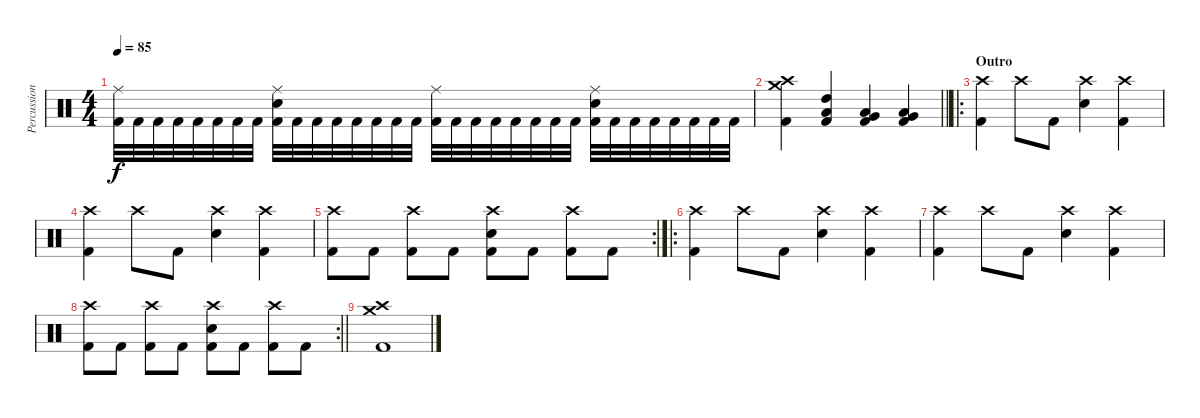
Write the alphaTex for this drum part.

\track ("Percussion" "Percussion") {instrument percussion}
\staff {score}
\articulation defaults
\ts (4 4)
\tempo 85
\clef neutral
\ks c
("Ride (middle)" "Kick (hit) 2").32{dy f} "Kick (hit) 2".32 "Kick (hit) 2".32 "Kick (hit) 2".32 "Kick (hit) 2".32 "Kick (hit) 2".32 "Kick (hit) 2".32 "Kick (hit) 2".32 ("Ride (middle)" "Electric Snare (hit)" "Kick (hit) 2").32 "Kick (hit) 2".32 "Kick (hit) 2".32 "Kick (hit) 2".32 "Kick (hit) 2".32 "Kick (hit) 2".32 "Kick (hit) 2".32 "Kick (hit) 2".32 ("Ride (middle)" "Kick (hit) 2").32 "Kick (hit) 2".32 "Kick (hit) 2".32 "Kick (hit) 2".32 "Kick (hit) 2".32 "Kick (hit) 2".32 "Kick (hit) 2".32 "Kick (hit) 2".32 ("Ride (middle)" "Electric Snare (hit)" "Kick (hit) 2").32 "Kick (hit) 2".32 "Kick (hit) 2".32 "Kick (hit) 2".32 "Kick (hit) 2".32 "Kick (hit) 2".32 "Kick (hit) 2".32 "Kick (hit) 2".32 |
\barLineRight lightlight
("Crash medium (hit)" "Crash high (hit)" "Kick (hit) 2").4 ("Low Tom (hit)" "High Tom (hit)" "Kick (hit) 2").4 ("Very Low Tom (hit)" "Low Tom (hit)" "Kick (hit) 2").4 ("Low Floor Tom (hit)" "Very Low Tom (hit)" "Kick (hit) 2").4 |
\ro
\section ("" "Outro")
("Crash high (hit)" "Kick (hit) 2").4 "Crash high (hit)".8 "Kick (hit) 2".8 ("Crash high (hit)" "Electric Snare (hit)").4 ("Crash high (hit)" "Kick (hit) 2").4 |
("Crash high (hit)" "Kick (hit) 2").4 "Crash high (hit)".8 "Kick (hit) 2".8 ("Crash high (hit)" "Electric Snare (hit)").4 ("Crash high (hit)" "Kick (hit) 2").4 |
\rc 2
("Crash high (hit)" "Kick (hit) 2").8 "Kick (hit) 2".8 ("Crash high (hit)" "Kick (hit) 2").8 "Kick (hit) 2".8 ("Crash high (hit)" "Electric Snare (hit)" "Kick (hit) 2").8 "Kick (hit) 2".8 ("Crash high (hit)" "Kick (hit) 2").8 "Kick (hit) 2".8 |
\ro
("Crash high (hit)" "Kick (hit) 2").4 "Crash high (hit)".8 "Kick (hit) 2".8 ("Crash high (hit)" "Electric Snare (hit)").4 ("Crash high (hit)" "Kick (hit) 2").4 |
("Crash high (hit)" "Kick (hit) 2").4 "Crash high (hit)".8 "Kick (hit) 2".8 ("Crash high (hit)" "Electric Snare (hit)").4 ("Crash high (hit)" "Kick (hit) 2").4 |
\rc 2
\barLineRight lightlight
("Crash high (hit)" "Kick (hit) 2").8 "Kick (hit) 2".8 ("Crash high (hit)" "Kick (hit) 2").8 "Kick (hit) 2".8 ("Crash high (hit)" "Electric Snare (hit)" "Kick (hit) 2").8 "Kick (hit) 2".8 ("Crash high (hit)" "Kick (hit) 2").8 "Kick (hit) 2".8 |
("Crash medium (hit)" "Crash high (hit)" "Kick (hit) 2").1
